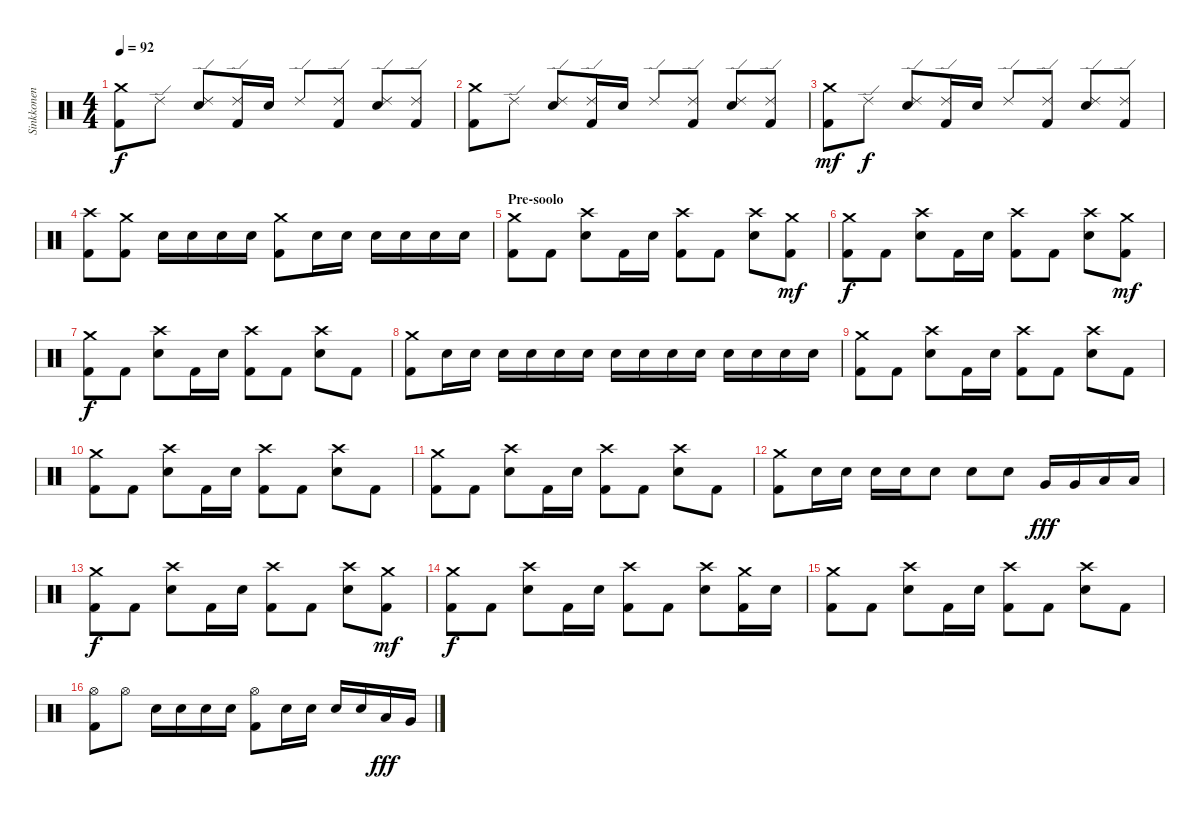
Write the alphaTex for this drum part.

\track ("Sinkkonen" "Sinkkonen") {instrument percussion}
\staff {score}
\articulation defaults
\ts (4 4)
\tempo 92
\clef neutral
\ks c
("Kick (hit) 2" "Crash medium (hit)").8{dy f} "Ride (edge) 2".8 ("Ride (edge) 2" "Snare (hit) 2").8 ("Kick (hit) 2" "Ride (edge) 2").16 "Snare (hit) 2".16 "Ride (edge) 2".8 ("Kick (hit) 2" "Ride (edge) 2").8 ("Ride (edge) 2" "Snare (hit) 2").8 ("Kick (hit) 2" "Ride (edge) 2").8 |
("Kick (hit) 2" "Crash medium (hit)").8 "Ride (edge) 2".8 ("Ride (edge) 2" "Snare (hit) 2").8 ("Kick (hit) 2" "Ride (edge) 2").16 "Snare (hit) 2".16 "Ride (edge) 2".8 ("Kick (hit) 2" "Ride (edge) 2").8 ("Ride (edge) 2" "Snare (hit) 2").8 ("Kick (hit) 2" "Ride (edge) 2").8 |
("Kick (hit) 2" "Crash medium (hit)").8{dy mf} "Ride (edge) 2".8{dy f} ("Ride (edge) 2" "Snare (hit) 2").8 ("Kick (hit) 2" "Ride (edge) 2").16 "Snare (hit) 2".16 "Ride (edge) 2".8 ("Kick (hit) 2" "Ride (edge) 2").8 ("Ride (edge) 2" "Snare (hit) 2").8 ("Kick (hit) 2" "Ride (edge) 2").8 |
("Kick (hit) 2" "Crash high (hit)").8 ("Kick (hit) 2" "Crash medium (hit)").8 "Snare (hit) 2".16 "Snare (hit) 2".16 "Snare (hit) 2".16 "Snare (hit) 2".16 ("Kick (hit) 2" "Crash medium (hit)").8 "Snare (hit) 2".16 "Snare (hit) 2".16 "Snare (hit) 2".16 "Snare (hit) 2".16 "Snare (hit) 2".16 "Snare (hit) 2".16 |
\section ("" "Pre-soolo")
("Kick (hit) 2" "Crash medium (hit)").8 "Kick (hit) 2".8 ("Crash high (hit)" "Snare (hit) 2").8 "Kick (hit) 2".16 "Snare (hit) 2".16 ("Kick (hit) 2" "Crash high (hit)").8 "Kick (hit) 2".8 ("Crash high (hit)" "Snare (hit) 2").8 ("Kick (hit) 2" "Crash medium (hit)").8{dy mf} |
("Kick (hit) 2" "Crash medium (hit)").8{dy f} "Kick (hit) 2".8 ("Crash high (hit)" "Snare (hit) 2").8 "Kick (hit) 2".16 "Snare (hit) 2".16 ("Kick (hit) 2" "Crash high (hit)").8 "Kick (hit) 2".8 ("Crash high (hit)" "Snare (hit) 2").8 ("Kick (hit) 2" "Crash medium (hit)").8{dy mf} |
("Kick (hit) 2" "Crash medium (hit)").8{dy f} "Kick (hit) 2".8 ("Crash high (hit)" "Snare (hit) 2").8 "Kick (hit) 2".16 "Snare (hit) 2".16 ("Kick (hit) 2" "Crash high (hit)").8 "Kick (hit) 2".8 ("Crash high (hit)" "Snare (hit) 2").8 "Kick (hit) 2".8 |
("Kick (hit) 2" "Crash medium (hit)").8 "Snare (hit) 2".16 "Snare (hit) 2".16 "Snare (hit) 2".16 "Snare (hit) 2".16 "Snare (hit) 2".16 "Snare (hit) 2".16 "Snare (hit) 2".16 "Snare (hit) 2".16 "Snare (hit) 2".16 "Snare (hit) 2".16 "Snare (hit) 2".16 "Snare (hit) 2".16 "Snare (hit) 2".16 "Snare (hit) 2".16 |
("Kick (hit) 2" "Crash medium (hit)").8 "Kick (hit) 2".8 ("Crash high (hit)" "Snare (hit) 2").8 "Kick (hit) 2".16 "Snare (hit) 2".16 ("Kick (hit) 2" "Crash high (hit)").8 "Kick (hit) 2".8 ("Crash high (hit)" "Snare (hit) 2").8 "Kick (hit) 2".8 |
("Kick (hit) 2" "Crash medium (hit)").8 "Kick (hit) 2".8 ("Crash high (hit)" "Snare (hit) 2").8 "Kick (hit) 2".16 "Snare (hit) 2".16 ("Kick (hit) 2" "Crash high (hit)").8 "Kick (hit) 2".8 ("Crash high (hit)" "Snare (hit) 2").8 "Kick (hit) 2".8 |
("Kick (hit) 2" "Crash medium (hit)").8 "Kick (hit) 2".8 ("Crash high (hit)" "Snare (hit) 2").8 "Kick (hit) 2".16 "Snare (hit) 2".16 ("Kick (hit) 2" "Crash high (hit)").8 "Kick (hit) 2".8 ("Crash high (hit)" "Snare (hit) 2").8 "Kick (hit) 2".8 |
("Kick (hit) 2" "Crash medium (hit)").8 "Snare (hit) 2".16 "Snare (hit) 2".16 "Snare (hit) 2".16 "Snare (hit) 2".16 "Snare (hit) 2".8 "Snare (hit) 2".8 "Snare (hit) 2".8 "Very Low Tom (hit)".16{dy fff} "Very Low Tom (hit)".16 "Low Floor Tom (hit)".16 "Low Floor Tom (hit)".16 |
("Kick (hit) 2" "Crash medium (hit)").8{dy f} "Kick (hit) 2".8 ("Crash high (hit)" "Snare (hit) 2").8 "Kick (hit) 2".16 "Snare (hit) 2".16 ("Kick (hit) 2" "Crash high (hit)").8 "Kick (hit) 2".8 ("Crash high (hit)" "Snare (hit) 2").8 ("Kick (hit) 2" "Crash medium (hit)").8{dy mf} |
("Kick (hit) 2" "Crash medium (hit)").8{dy f} "Kick (hit) 2".8 ("Crash high (hit)" "Snare (hit) 2").8 "Kick (hit) 2".16 "Snare (hit) 2".16 ("Kick (hit) 2" "Crash high (hit)").8 "Kick (hit) 2".8 ("Crash high (hit)" "Snare (hit) 2").8 ("Kick (hit) 2" "Crash medium (hit)").16 "Snare (hit) 2".16 |
("Kick (hit) 2" "Crash medium (hit)").8 "Kick (hit) 2".8 ("Crash high (hit)" "Snare (hit) 2").8 "Kick (hit) 2".16 "Snare (hit) 2".16 ("Kick (hit) 2" "Crash high (hit)").8 "Kick (hit) 2".8 ("Crash high (hit)" "Snare (hit) 2").8 "Kick (hit) 2".8 |
("Kick (hit) 2" "Hi-Hat (open)").8 "Hi-Hat (open)".8 "Snare (hit) 2".16 "Snare (hit) 2".16 "Snare (hit) 2".16 "Snare (hit) 2".16 ("Kick (hit) 2" "Hi-Hat (open)").8 "Snare (hit) 2".16 "Snare (hit) 2".16 "Snare (hit) 2".16 "Snare (hit) 2".16 "Low Tom (hit)".16{dy fff} "Very Low Tom (hit)".16
